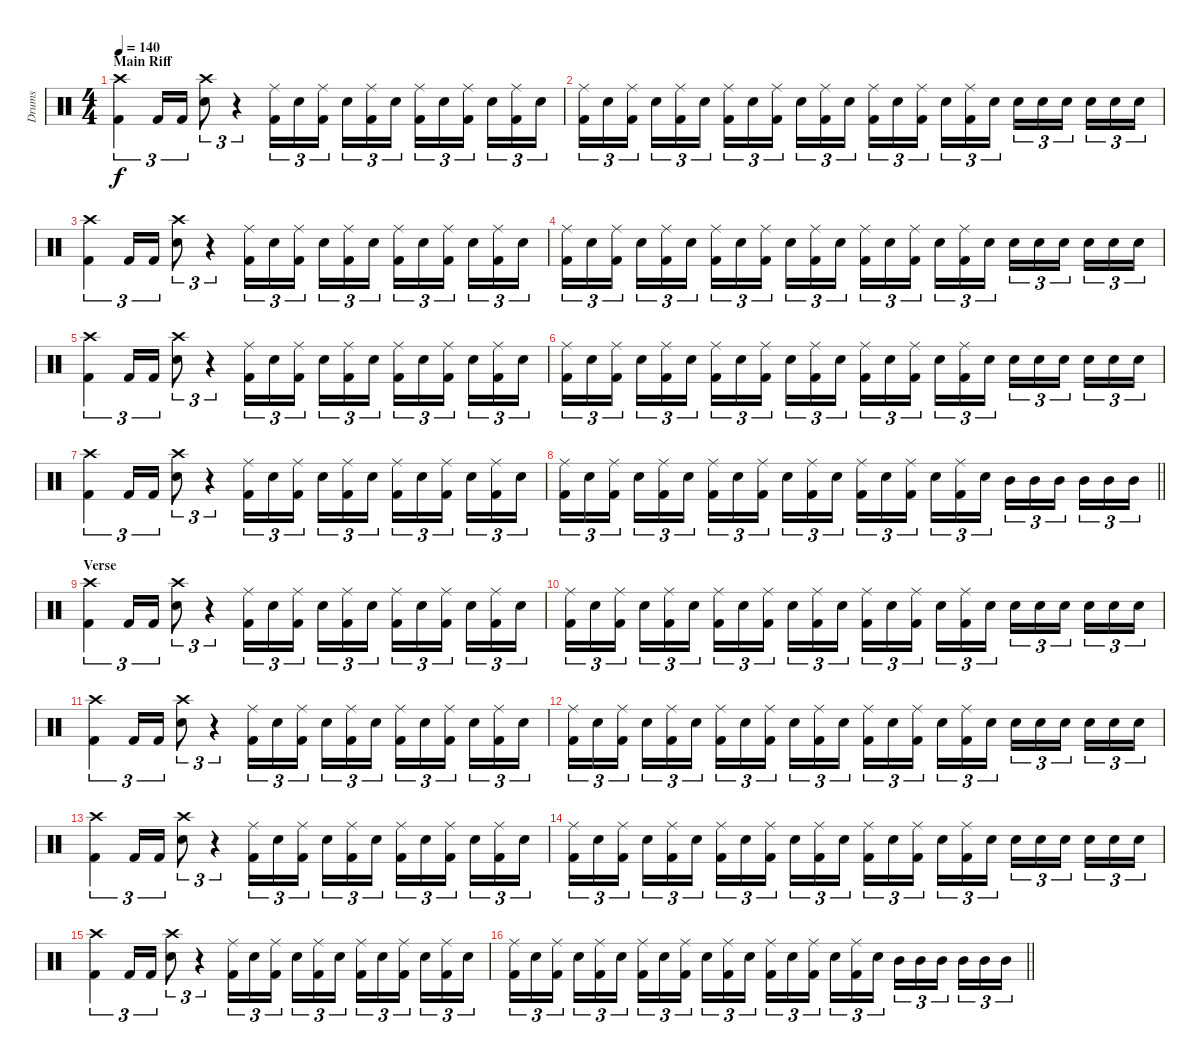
\track ("Drums" "Drums") {instrument percussion}
\staff {score}
\articulation defaults
\ts (4 4)
\section ("" "Main Riff")
\tempo 140
\clef neutral
\ks c
("Crash high (hit)" "Kick (hit) 2").4{tu (3 2) dy f} "Kick (hit) 2".16{tu (3 2)} "Kick (hit) 2".16{tu (3 2)} ("Crash high (hit)" "Electric Snare (hit)").8{tu (3 2)} r.4{tu (3 2)} ("Ride (middle)" "Kick (hit) 2").16{tu (3 2)} "Electric Snare (hit)".16{tu (3 2)} ("Ride (middle)" "Kick (hit) 2").16{tu (3 2)} "Electric Snare (hit)".16{tu (3 2)} ("Ride (middle)" "Kick (hit) 2").16{tu (3 2)} "Electric Snare (hit)".16{tu (3 2)} ("Ride (middle)" "Kick (hit) 2").16{tu (3 2)} "Electric Snare (hit)".16{tu (3 2)} ("Ride (middle)" "Kick (hit) 2").16{tu (3 2)} "Electric Snare (hit)".16{tu (3 2)} ("Ride (middle)" "Kick (hit) 2").16{tu (3 2)} "Electric Snare (hit)".16{tu (3 2)} |
("Ride (middle)" "Kick (hit) 2").16{tu (3 2)} "Electric Snare (hit)".16{tu (3 2)} ("Ride (middle)" "Kick (hit) 2").16{tu (3 2)} "Electric Snare (hit)".16{tu (3 2)} ("Ride (middle)" "Kick (hit) 2").16{tu (3 2)} "Electric Snare (hit)".16{tu (3 2)} ("Ride (middle)" "Kick (hit) 2").16{tu (3 2)} "Electric Snare (hit)".16{tu (3 2)} ("Ride (middle)" "Kick (hit) 2").16{tu (3 2)} "Electric Snare (hit)".16{tu (3 2)} ("Ride (middle)" "Kick (hit) 2").16{tu (3 2)} "Electric Snare (hit)".16{tu (3 2)} ("Ride (middle)" "Kick (hit) 2").16{tu (3 2)} "Electric Snare (hit)".16{tu (3 2)} ("Ride (middle)" "Kick (hit) 2").16{tu (3 2)} "Electric Snare (hit)".16{tu (3 2)} ("Ride (middle)" "Kick (hit) 2").16{tu (3 2)} "Electric Snare (hit)".16{tu (3 2)} "Electric Snare (hit)".16{tu (3 2)} "Electric Snare (hit)".16{tu (3 2)} "Electric Snare (hit)".16{tu (3 2)} "Electric Snare (hit)".16{tu (3 2)} "Electric Snare (hit)".16{tu (3 2)} "Electric Snare (hit)".16{tu (3 2)} |
("Crash high (hit)" "Kick (hit) 2").4{tu (3 2)} "Kick (hit) 2".16{tu (3 2)} "Kick (hit) 2".16{tu (3 2)} ("Crash high (hit)" "Electric Snare (hit)").8{tu (3 2)} r.4{tu (3 2)} ("Ride (middle)" "Kick (hit) 2").16{tu (3 2)} "Electric Snare (hit)".16{tu (3 2)} ("Ride (middle)" "Kick (hit) 2").16{tu (3 2)} "Electric Snare (hit)".16{tu (3 2)} ("Ride (middle)" "Kick (hit) 2").16{tu (3 2)} "Electric Snare (hit)".16{tu (3 2)} ("Ride (middle)" "Kick (hit) 2").16{tu (3 2)} "Electric Snare (hit)".16{tu (3 2)} ("Ride (middle)" "Kick (hit) 2").16{tu (3 2)} "Electric Snare (hit)".16{tu (3 2)} ("Ride (middle)" "Kick (hit) 2").16{tu (3 2)} "Electric Snare (hit)".16{tu (3 2)} |
("Ride (middle)" "Kick (hit) 2").16{tu (3 2)} "Electric Snare (hit)".16{tu (3 2)} ("Ride (middle)" "Kick (hit) 2").16{tu (3 2)} "Electric Snare (hit)".16{tu (3 2)} ("Ride (middle)" "Kick (hit) 2").16{tu (3 2)} "Electric Snare (hit)".16{tu (3 2)} ("Ride (middle)" "Kick (hit) 2").16{tu (3 2)} "Electric Snare (hit)".16{tu (3 2)} ("Ride (middle)" "Kick (hit) 2").16{tu (3 2)} "Electric Snare (hit)".16{tu (3 2)} ("Ride (middle)" "Kick (hit) 2").16{tu (3 2)} "Electric Snare (hit)".16{tu (3 2)} ("Ride (middle)" "Kick (hit) 2").16{tu (3 2)} "Electric Snare (hit)".16{tu (3 2)} ("Ride (middle)" "Kick (hit) 2").16{tu (3 2)} "Electric Snare (hit)".16{tu (3 2)} ("Ride (middle)" "Kick (hit) 2").16{tu (3 2)} "Electric Snare (hit)".16{tu (3 2)} "Electric Snare (hit)".16{tu (3 2)} "Electric Snare (hit)".16{tu (3 2)} "Electric Snare (hit)".16{tu (3 2)} "Electric Snare (hit)".16{tu (3 2)} "Electric Snare (hit)".16{tu (3 2)} "Electric Snare (hit)".16{tu (3 2)} |
("Crash high (hit)" "Kick (hit) 2").4{tu (3 2)} "Kick (hit) 2".16{tu (3 2)} "Kick (hit) 2".16{tu (3 2)} ("Crash high (hit)" "Electric Snare (hit)").8{tu (3 2)} r.4{tu (3 2)} ("Ride (middle)" "Kick (hit) 2").16{tu (3 2)} "Electric Snare (hit)".16{tu (3 2)} ("Ride (middle)" "Kick (hit) 2").16{tu (3 2)} "Electric Snare (hit)".16{tu (3 2)} ("Ride (middle)" "Kick (hit) 2").16{tu (3 2)} "Electric Snare (hit)".16{tu (3 2)} ("Ride (middle)" "Kick (hit) 2").16{tu (3 2)} "Electric Snare (hit)".16{tu (3 2)} ("Ride (middle)" "Kick (hit) 2").16{tu (3 2)} "Electric Snare (hit)".16{tu (3 2)} ("Ride (middle)" "Kick (hit) 2").16{tu (3 2)} "Electric Snare (hit)".16{tu (3 2)} |
("Ride (middle)" "Kick (hit) 2").16{tu (3 2)} "Electric Snare (hit)".16{tu (3 2)} ("Ride (middle)" "Kick (hit) 2").16{tu (3 2)} "Electric Snare (hit)".16{tu (3 2)} ("Ride (middle)" "Kick (hit) 2").16{tu (3 2)} "Electric Snare (hit)".16{tu (3 2)} ("Ride (middle)" "Kick (hit) 2").16{tu (3 2)} "Electric Snare (hit)".16{tu (3 2)} ("Ride (middle)" "Kick (hit) 2").16{tu (3 2)} "Electric Snare (hit)".16{tu (3 2)} ("Ride (middle)" "Kick (hit) 2").16{tu (3 2)} "Electric Snare (hit)".16{tu (3 2)} ("Ride (middle)" "Kick (hit) 2").16{tu (3 2)} "Electric Snare (hit)".16{tu (3 2)} ("Ride (middle)" "Kick (hit) 2").16{tu (3 2)} "Electric Snare (hit)".16{tu (3 2)} ("Ride (middle)" "Kick (hit) 2").16{tu (3 2)} "Electric Snare (hit)".16{tu (3 2)} "Electric Snare (hit)".16{tu (3 2)} "Electric Snare (hit)".16{tu (3 2)} "Electric Snare (hit)".16{tu (3 2)} "Electric Snare (hit)".16{tu (3 2)} "Electric Snare (hit)".16{tu (3 2)} "Electric Snare (hit)".16{tu (3 2)} |
("Crash high (hit)" "Kick (hit) 2").4{tu (3 2)} "Kick (hit) 2".16{tu (3 2)} "Kick (hit) 2".16{tu (3 2)} ("Crash high (hit)" "Electric Snare (hit)").8{tu (3 2)} r.4{tu (3 2)} ("Ride (middle)" "Kick (hit) 2").16{tu (3 2)} "Electric Snare (hit)".16{tu (3 2)} ("Ride (middle)" "Kick (hit) 2").16{tu (3 2)} "Electric Snare (hit)".16{tu (3 2)} ("Ride (middle)" "Kick (hit) 2").16{tu (3 2)} "Electric Snare (hit)".16{tu (3 2)} ("Ride (middle)" "Kick (hit) 2").16{tu (3 2)} "Electric Snare (hit)".16{tu (3 2)} ("Ride (middle)" "Kick (hit) 2").16{tu (3 2)} "Electric Snare (hit)".16{tu (3 2)} ("Ride (middle)" "Kick (hit) 2").16{tu (3 2)} "Electric Snare (hit)".16{tu (3 2)} |
\barLineRight lightlight
("Ride (middle)" "Kick (hit) 2").16{tu (3 2)} "Electric Snare (hit)".16{tu (3 2)} ("Ride (middle)" "Kick (hit) 2").16{tu (3 2)} "Electric Snare (hit)".16{tu (3 2)} ("Ride (middle)" "Kick (hit) 2").16{tu (3 2)} "Electric Snare (hit)".16{tu (3 2)} ("Ride (middle)" "Kick (hit) 2").16{tu (3 2)} "Electric Snare (hit)".16{tu (3 2)} ("Ride (middle)" "Kick (hit) 2").16{tu (3 2)} "Electric Snare (hit)".16{tu (3 2)} ("Ride (middle)" "Kick (hit) 2").16{tu (3 2)} "Electric Snare (hit)".16{tu (3 2)} ("Ride (middle)" "Kick (hit) 2").16{tu (3 2)} "Electric Snare (hit)".16{tu (3 2)} ("Ride (middle)" "Kick (hit) 2").16{tu (3 2)} "Electric Snare (hit)".16{tu (3 2)} ("Ride (middle)" "Kick (hit) 2").16{tu (3 2)} "Electric Snare (hit)".16{tu (3 2)} "Mid Tom (hit)".16{tu (3 2)} "Mid Tom (hit)".16{tu (3 2)} "Mid Tom (hit)".16{tu (3 2)} "Mid Tom (hit)".16{tu (3 2)} "Mid Tom (hit)".16{tu (3 2)} "Mid Tom (hit)".16{tu (3 2)} |
\section ("" "Verse")
("Crash high (hit)" "Kick (hit) 2").4{tu (3 2)} "Kick (hit) 2".16{tu (3 2)} "Kick (hit) 2".16{tu (3 2)} ("Crash high (hit)" "Electric Snare (hit)").8{tu (3 2)} r.4{tu (3 2)} ("Ride (middle)" "Kick (hit) 2").16{tu (3 2)} "Electric Snare (hit)".16{tu (3 2)} ("Ride (middle)" "Kick (hit) 2").16{tu (3 2)} "Electric Snare (hit)".16{tu (3 2)} ("Ride (middle)" "Kick (hit) 2").16{tu (3 2)} "Electric Snare (hit)".16{tu (3 2)} ("Ride (middle)" "Kick (hit) 2").16{tu (3 2)} "Electric Snare (hit)".16{tu (3 2)} ("Ride (middle)" "Kick (hit) 2").16{tu (3 2)} "Electric Snare (hit)".16{tu (3 2)} ("Ride (middle)" "Kick (hit) 2").16{tu (3 2)} "Electric Snare (hit)".16{tu (3 2)} |
("Ride (middle)" "Kick (hit) 2").16{tu (3 2)} "Electric Snare (hit)".16{tu (3 2)} ("Ride (middle)" "Kick (hit) 2").16{tu (3 2)} "Electric Snare (hit)".16{tu (3 2)} ("Ride (middle)" "Kick (hit) 2").16{tu (3 2)} "Electric Snare (hit)".16{tu (3 2)} ("Ride (middle)" "Kick (hit) 2").16{tu (3 2)} "Electric Snare (hit)".16{tu (3 2)} ("Ride (middle)" "Kick (hit) 2").16{tu (3 2)} "Electric Snare (hit)".16{tu (3 2)} ("Ride (middle)" "Kick (hit) 2").16{tu (3 2)} "Electric Snare (hit)".16{tu (3 2)} ("Ride (middle)" "Kick (hit) 2").16{tu (3 2)} "Electric Snare (hit)".16{tu (3 2)} ("Ride (middle)" "Kick (hit) 2").16{tu (3 2)} "Electric Snare (hit)".16{tu (3 2)} ("Ride (middle)" "Kick (hit) 2").16{tu (3 2)} "Electric Snare (hit)".16{tu (3 2)} "Electric Snare (hit)".16{tu (3 2)} "Electric Snare (hit)".16{tu (3 2)} "Electric Snare (hit)".16{tu (3 2)} "Electric Snare (hit)".16{tu (3 2)} "Electric Snare (hit)".16{tu (3 2)} "Electric Snare (hit)".16{tu (3 2)} |
("Crash high (hit)" "Kick (hit) 2").4{tu (3 2)} "Kick (hit) 2".16{tu (3 2)} "Kick (hit) 2".16{tu (3 2)} ("Crash high (hit)" "Electric Snare (hit)").8{tu (3 2)} r.4{tu (3 2)} ("Ride (middle)" "Kick (hit) 2").16{tu (3 2)} "Electric Snare (hit)".16{tu (3 2)} ("Ride (middle)" "Kick (hit) 2").16{tu (3 2)} "Electric Snare (hit)".16{tu (3 2)} ("Ride (middle)" "Kick (hit) 2").16{tu (3 2)} "Electric Snare (hit)".16{tu (3 2)} ("Ride (middle)" "Kick (hit) 2").16{tu (3 2)} "Electric Snare (hit)".16{tu (3 2)} ("Ride (middle)" "Kick (hit) 2").16{tu (3 2)} "Electric Snare (hit)".16{tu (3 2)} ("Ride (middle)" "Kick (hit) 2").16{tu (3 2)} "Electric Snare (hit)".16{tu (3 2)} |
("Ride (middle)" "Kick (hit) 2").16{tu (3 2)} "Electric Snare (hit)".16{tu (3 2)} ("Ride (middle)" "Kick (hit) 2").16{tu (3 2)} "Electric Snare (hit)".16{tu (3 2)} ("Ride (middle)" "Kick (hit) 2").16{tu (3 2)} "Electric Snare (hit)".16{tu (3 2)} ("Ride (middle)" "Kick (hit) 2").16{tu (3 2)} "Electric Snare (hit)".16{tu (3 2)} ("Ride (middle)" "Kick (hit) 2").16{tu (3 2)} "Electric Snare (hit)".16{tu (3 2)} ("Ride (middle)" "Kick (hit) 2").16{tu (3 2)} "Electric Snare (hit)".16{tu (3 2)} ("Ride (middle)" "Kick (hit) 2").16{tu (3 2)} "Electric Snare (hit)".16{tu (3 2)} ("Ride (middle)" "Kick (hit) 2").16{tu (3 2)} "Electric Snare (hit)".16{tu (3 2)} ("Ride (middle)" "Kick (hit) 2").16{tu (3 2)} "Electric Snare (hit)".16{tu (3 2)} "Electric Snare (hit)".16{tu (3 2)} "Electric Snare (hit)".16{tu (3 2)} "Electric Snare (hit)".16{tu (3 2)} "Electric Snare (hit)".16{tu (3 2)} "Electric Snare (hit)".16{tu (3 2)} "Electric Snare (hit)".16{tu (3 2)} |
("Crash high (hit)" "Kick (hit) 2").4{tu (3 2)} "Kick (hit) 2".16{tu (3 2)} "Kick (hit) 2".16{tu (3 2)} ("Crash high (hit)" "Electric Snare (hit)").8{tu (3 2)} r.4{tu (3 2)} ("Ride (middle)" "Kick (hit) 2").16{tu (3 2)} "Electric Snare (hit)".16{tu (3 2)} ("Ride (middle)" "Kick (hit) 2").16{tu (3 2)} "Electric Snare (hit)".16{tu (3 2)} ("Ride (middle)" "Kick (hit) 2").16{tu (3 2)} "Electric Snare (hit)".16{tu (3 2)} ("Ride (middle)" "Kick (hit) 2").16{tu (3 2)} "Electric Snare (hit)".16{tu (3 2)} ("Ride (middle)" "Kick (hit) 2").16{tu (3 2)} "Electric Snare (hit)".16{tu (3 2)} ("Ride (middle)" "Kick (hit) 2").16{tu (3 2)} "Electric Snare (hit)".16{tu (3 2)} |
("Ride (middle)" "Kick (hit) 2").16{tu (3 2)} "Electric Snare (hit)".16{tu (3 2)} ("Ride (middle)" "Kick (hit) 2").16{tu (3 2)} "Electric Snare (hit)".16{tu (3 2)} ("Ride (middle)" "Kick (hit) 2").16{tu (3 2)} "Electric Snare (hit)".16{tu (3 2)} ("Ride (middle)" "Kick (hit) 2").16{tu (3 2)} "Electric Snare (hit)".16{tu (3 2)} ("Ride (middle)" "Kick (hit) 2").16{tu (3 2)} "Electric Snare (hit)".16{tu (3 2)} ("Ride (middle)" "Kick (hit) 2").16{tu (3 2)} "Electric Snare (hit)".16{tu (3 2)} ("Ride (middle)" "Kick (hit) 2").16{tu (3 2)} "Electric Snare (hit)".16{tu (3 2)} ("Ride (middle)" "Kick (hit) 2").16{tu (3 2)} "Electric Snare (hit)".16{tu (3 2)} ("Ride (middle)" "Kick (hit) 2").16{tu (3 2)} "Electric Snare (hit)".16{tu (3 2)} "Electric Snare (hit)".16{tu (3 2)} "Electric Snare (hit)".16{tu (3 2)} "Electric Snare (hit)".16{tu (3 2)} "Electric Snare (hit)".16{tu (3 2)} "Electric Snare (hit)".16{tu (3 2)} "Electric Snare (hit)".16{tu (3 2)} |
("Crash high (hit)" "Kick (hit) 2").4{tu (3 2)} "Kick (hit) 2".16{tu (3 2)} "Kick (hit) 2".16{tu (3 2)} ("Crash high (hit)" "Electric Snare (hit)").8{tu (3 2)} r.4{tu (3 2)} ("Ride (middle)" "Kick (hit) 2").16{tu (3 2)} "Electric Snare (hit)".16{tu (3 2)} ("Ride (middle)" "Kick (hit) 2").16{tu (3 2)} "Electric Snare (hit)".16{tu (3 2)} ("Ride (middle)" "Kick (hit) 2").16{tu (3 2)} "Electric Snare (hit)".16{tu (3 2)} ("Ride (middle)" "Kick (hit) 2").16{tu (3 2)} "Electric Snare (hit)".16{tu (3 2)} ("Ride (middle)" "Kick (hit) 2").16{tu (3 2)} "Electric Snare (hit)".16{tu (3 2)} ("Ride (middle)" "Kick (hit) 2").16{tu (3 2)} "Electric Snare (hit)".16{tu (3 2)} |
\barLineRight lightlight
("Ride (middle)" "Kick (hit) 2").16{tu (3 2)} "Electric Snare (hit)".16{tu (3 2)} ("Ride (middle)" "Kick (hit) 2").16{tu (3 2)} "Electric Snare (hit)".16{tu (3 2)} ("Ride (middle)" "Kick (hit) 2").16{tu (3 2)} "Electric Snare (hit)".16{tu (3 2)} ("Ride (middle)" "Kick (hit) 2").16{tu (3 2)} "Electric Snare (hit)".16{tu (3 2)} ("Ride (middle)" "Kick (hit) 2").16{tu (3 2)} "Electric Snare (hit)".16{tu (3 2)} ("Ride (middle)" "Kick (hit) 2").16{tu (3 2)} "Electric Snare (hit)".16{tu (3 2)} ("Ride (middle)" "Kick (hit) 2").16{tu (3 2)} "Electric Snare (hit)".16{tu (3 2)} ("Ride (middle)" "Kick (hit) 2").16{tu (3 2)} "Electric Snare (hit)".16{tu (3 2)} ("Ride (middle)" "Kick (hit) 2").16{tu (3 2)} "Electric Snare (hit)".16{tu (3 2)} "Mid Tom (hit)".16{tu (3 2)} "Mid Tom (hit)".16{tu (3 2)} "Mid Tom (hit)".16{tu (3 2)} "Mid Tom (hit)".16{tu (3 2)} "Mid Tom (hit)".16{tu (3 2)} "Mid Tom (hit)".16{tu (3 2)}
